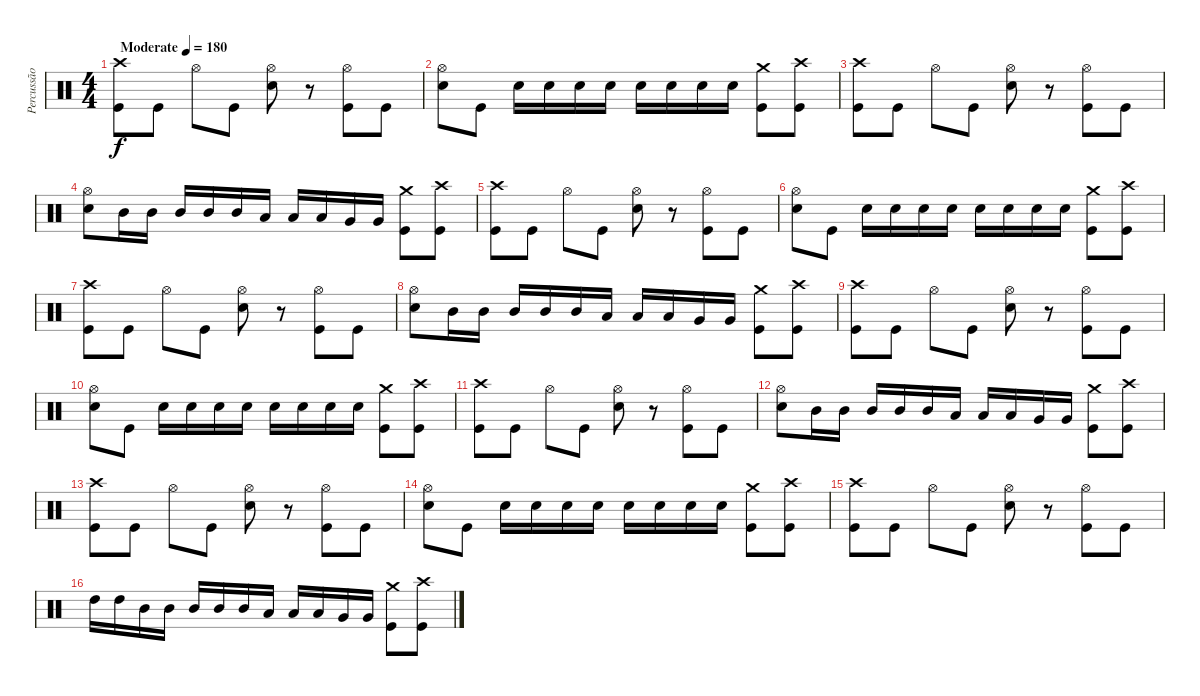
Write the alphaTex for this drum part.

\track ("Percussão" "Percussão") {mute instrument percussion}
\staff {score}
\articulation defaults
\ts (4 4)
\tempo (180 "Moderate")
\clef neutral
\ks c
("Crash high (hit)" "Kick (hit)").8{dy f} "Kick (hit)".8 "Hi-Hat (open)".8 "Kick (hit)".8 ("Hi-Hat (open)" "Electric Snare (hit)").8 r.8 ("Hi-Hat (open)" "Kick (hit)").8 "Kick (hit)".8 |
("Hi-Hat (open)" "Electric Snare (hit)").8 "Kick (hit)".8 "Electric Snare (hit)".16 "Electric Snare (hit)".16 "Electric Snare (hit)".16 "Electric Snare (hit)".16 "Electric Snare (hit)".16 "Electric Snare (hit)".16 "Electric Snare (hit)".16 "Electric Snare (hit)".16 ("Crash medium (hit)" "Kick (hit)").8 ("Crash high (hit)" "Kick (hit)").8 |
("Crash high (hit)" "Kick (hit)").8 "Kick (hit)".8 "Hi-Hat (open)".8 "Kick (hit)".8 ("Hi-Hat (open)" "Electric Snare (hit)").8 r.8 ("Hi-Hat (open)" "Kick (hit)").8 "Kick (hit)".8 |
("Hi-Hat (open)" "Electric Snare (hit)").8 "Mid Tom (hit)".16 "Mid Tom (hit)".16 "Mid Tom (hit)".16 "Mid Tom (hit)".16 "Mid Tom (hit)".16 "Low Tom (hit)".16 "Low Tom (hit)".16 "Low Tom (hit)".16 "Very Low Tom (hit)".16 "Very Low Tom (hit)".16 ("Crash medium (hit)" "Kick (hit)").8 ("Crash high (hit)" "Kick (hit)").8 |
("Crash high (hit)" "Kick (hit)").8 "Kick (hit)".8 "Hi-Hat (open)".8 "Kick (hit)".8 ("Hi-Hat (open)" "Electric Snare (hit)").8 r.8 ("Hi-Hat (open)" "Kick (hit)").8 "Kick (hit)".8 |
("Hi-Hat (open)" "Electric Snare (hit)").8 "Kick (hit)".8 "Electric Snare (hit)".16 "Electric Snare (hit)".16 "Electric Snare (hit)".16 "Electric Snare (hit)".16 "Electric Snare (hit)".16 "Electric Snare (hit)".16 "Electric Snare (hit)".16 "Electric Snare (hit)".16 ("Crash medium (hit)" "Kick (hit)").8 ("Crash high (hit)" "Kick (hit)").8 |
("Crash high (hit)" "Kick (hit)").8 "Kick (hit)".8 "Hi-Hat (open)".8 "Kick (hit)".8 ("Hi-Hat (open)" "Electric Snare (hit)").8 r.8 ("Hi-Hat (open)" "Kick (hit)").8 "Kick (hit)".8 |
("Hi-Hat (open)" "Electric Snare (hit)").8 "Mid Tom (hit)".16 "Mid Tom (hit)".16 "Mid Tom (hit)".16 "Mid Tom (hit)".16 "Mid Tom (hit)".16 "Low Tom (hit)".16 "Low Tom (hit)".16 "Low Tom (hit)".16 "Very Low Tom (hit)".16 "Very Low Tom (hit)".16 ("Crash medium (hit)" "Kick (hit)").8 ("Crash high (hit)" "Kick (hit)").8 |
("Crash high (hit)" "Kick (hit)").8 "Kick (hit)".8 "Hi-Hat (open)".8 "Kick (hit)".8 ("Hi-Hat (open)" "Electric Snare (hit)").8 r.8 ("Hi-Hat (open)" "Kick (hit)").8 "Kick (hit)".8 |
("Hi-Hat (open)" "Electric Snare (hit)").8 "Kick (hit)".8 "Electric Snare (hit)".16 "Electric Snare (hit)".16 "Electric Snare (hit)".16 "Electric Snare (hit)".16 "Electric Snare (hit)".16 "Electric Snare (hit)".16 "Electric Snare (hit)".16 "Electric Snare (hit)".16 ("Crash medium (hit)" "Kick (hit)").8 ("Crash high (hit)" "Kick (hit)").8 |
("Crash high (hit)" "Kick (hit)").8 "Kick (hit)".8 "Hi-Hat (open)".8 "Kick (hit)".8 ("Hi-Hat (open)" "Electric Snare (hit)").8 r.8 ("Hi-Hat (open)" "Kick (hit)").8 "Kick (hit)".8 |
("Hi-Hat (open)" "Electric Snare (hit)").8 "Mid Tom (hit)".16 "Mid Tom (hit)".16 "Mid Tom (hit)".16 "Mid Tom (hit)".16 "Mid Tom (hit)".16 "Low Tom (hit)".16 "Low Tom (hit)".16 "Low Tom (hit)".16 "Very Low Tom (hit)".16 "Very Low Tom (hit)".16 ("Crash medium (hit)" "Kick (hit)").8 ("Crash high (hit)" "Kick (hit)").8 |
("Crash high (hit)" "Kick (hit)").8 "Kick (hit)".8 "Hi-Hat (open)".8 "Kick (hit)".8 ("Hi-Hat (open)" "Electric Snare (hit)").8 r.8 ("Hi-Hat (open)" "Kick (hit)").8 "Kick (hit)".8 |
("Hi-Hat (open)" "Electric Snare (hit)").8 "Kick (hit)".8 "Electric Snare (hit)".16 "Electric Snare (hit)".16 "Electric Snare (hit)".16 "Electric Snare (hit)".16 "Electric Snare (hit)".16 "Electric Snare (hit)".16 "Electric Snare (hit)".16 "Electric Snare (hit)".16 ("Crash medium (hit)" "Kick (hit)").8 ("Crash high (hit)" "Kick (hit)").8 |
("Crash high (hit)" "Kick (hit)").8 "Kick (hit)".8 "Hi-Hat (open)".8 "Kick (hit)".8 ("Hi-Hat (open)" "Electric Snare (hit)").8 r.8 ("Hi-Hat (open)" "Kick (hit)").8 "Kick (hit)".8 |
"High Tom (hit)".16 "High Tom (hit)".16 "Mid Tom (hit)".16 "Mid Tom (hit)".16 "Mid Tom (hit)".16 "Mid Tom (hit)".16 "Mid Tom (hit)".16 "Low Tom (hit)".16 "Low Tom (hit)".16 "Low Tom (hit)".16 "Very Low Tom (hit)".16 "Very Low Tom (hit)".16 ("Crash medium (hit)" "Kick (hit)").8 ("Crash high (hit)" "Kick (hit)").8
